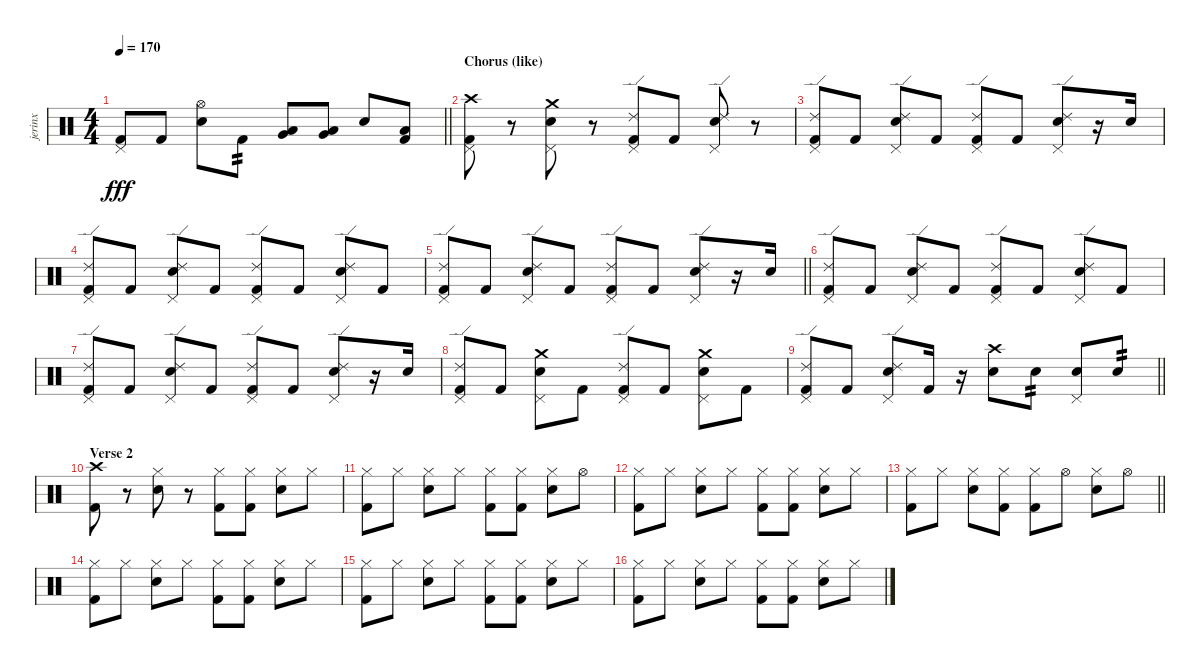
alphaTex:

\track ("jerinx" "jerinx") {instrument percussion}
\staff {score}
\articulation defaults
\ts (4 4)
\tempo 170
\clef neutral
\barLineRight lightlight
\ks c
("Pedal Hi-Hat (hit)" "Kick (hit) 2").8{dy fff} "Kick (hit) 2".8 ("Hi-Hat (open)" "Snare (hit) 2").8 "Kick (hit) 2".8{tp 2} ("Low Tom (hit)" "Very Low Tom (hit)").8 ("Low Tom (hit)" "Very Low Tom (hit)").8 "Snare (hit) 2".8 ("Kick (hit) 2" "Low Floor Tom (hit)").8 |
\section ("" "Chorus (like)")
("Pedal Hi-Hat (hit)" "Kick (hit) 2" "Crash high (hit)").8 r.8 ("Pedal Hi-Hat (hit)" "Snare (hit) 2" "Crash medium (hit)").8 r.8 ("Pedal Hi-Hat (hit)" "Kick (hit) 2" "Ride (edge) 2").8 "Kick (hit) 2".8 ("Pedal Hi-Hat (hit)" "Snare (hit) 2" "Ride (edge) 2").8 r.8 |
("Pedal Hi-Hat (hit)" "Kick (hit) 2" "Ride (edge) 2").8 "Kick (hit) 2".8 ("Pedal Hi-Hat (hit)" "Snare (hit) 2" "Ride (edge) 2").8 "Kick (hit) 2".8 ("Pedal Hi-Hat (hit)" "Kick (hit) 2" "Ride (edge) 2").8 "Kick (hit) 2".8 ("Pedal Hi-Hat (hit)" "Snare (hit) 2" "Ride (edge) 2").8 r.16 "Snare (hit) 2".16 |
("Pedal Hi-Hat (hit)" "Kick (hit) 2" "Ride (edge) 2").8 "Kick (hit) 2".8 ("Pedal Hi-Hat (hit)" "Snare (hit) 2" "Ride (edge) 2").8 "Kick (hit) 2".8 ("Pedal Hi-Hat (hit)" "Kick (hit) 2" "Ride (edge) 2").8 "Kick (hit) 2".8 ("Pedal Hi-Hat (hit)" "Snare (hit) 2" "Ride (edge) 2").8 "Kick (hit) 2".8 |
\barLineRight lightlight
("Pedal Hi-Hat (hit)" "Kick (hit) 2" "Ride (edge) 2").8 "Kick (hit) 2".8 ("Pedal Hi-Hat (hit)" "Snare (hit) 2" "Ride (edge) 2").8 "Kick (hit) 2".8 ("Pedal Hi-Hat (hit)" "Kick (hit) 2" "Ride (edge) 2").8 "Kick (hit) 2".8 ("Pedal Hi-Hat (hit)" "Snare (hit) 2" "Ride (edge) 2").8 r.16 "Snare (hit) 2".16 |
("Pedal Hi-Hat (hit)" "Kick (hit) 2" "Ride (edge) 2").8 "Kick (hit) 2".8 ("Pedal Hi-Hat (hit)" "Snare (hit) 2" "Ride (edge) 2").8 "Kick (hit) 2".8 ("Pedal Hi-Hat (hit)" "Kick (hit) 2" "Ride (edge) 2").8 "Kick (hit) 2".8 ("Pedal Hi-Hat (hit)" "Snare (hit) 2" "Ride (edge) 2").8 "Kick (hit) 2".8 |
("Pedal Hi-Hat (hit)" "Kick (hit) 2" "Ride (edge) 2").8 "Kick (hit) 2".8 ("Pedal Hi-Hat (hit)" "Snare (hit) 2" "Ride (edge) 2").8 "Kick (hit) 2".8 ("Pedal Hi-Hat (hit)" "Kick (hit) 2" "Ride (edge) 2").8 "Kick (hit) 2".8 ("Pedal Hi-Hat (hit)" "Snare (hit) 2" "Ride (edge) 2").8 r.16 "Snare (hit) 2".16 |
("Pedal Hi-Hat (hit)" "Kick (hit) 2" "Ride (edge) 2").8 "Kick (hit) 2".8 ("Pedal Hi-Hat (hit)" "Snare (hit) 2" "Crash medium (hit)").8 "Kick (hit) 2".8 ("Pedal Hi-Hat (hit)" "Kick (hit) 2" "Ride (edge) 2").8 "Kick (hit) 2".8 ("Pedal Hi-Hat (hit)" "Snare (hit) 2" "Crash medium (hit)").8 "Kick (hit) 2".8 |
\barLineRight lightlight
("Pedal Hi-Hat (hit)" "Kick (hit) 2" "Ride (edge) 2").8 "Kick (hit) 2".8 ("Pedal Hi-Hat (hit)" "Snare (hit) 2" "Ride (edge) 2").8 "Kick (hit) 2".16 r.16 ("Snare (hit) 2" "Crash high (hit)").8 "Snare (hit) 2".8{tp 2} ("Pedal Hi-Hat (hit)" "Snare (hit) 2").8 "Snare (hit) 2".8{tp 2} |
\section ("" "Verse 2")
("Kick (hit) 2" "Crash high (hit)").8 r.8 ("Hi-Hat (closed)" "Snare (hit) 2").8 r.8 ("Hi-Hat (closed)" "Kick (hit) 2").8 ("Hi-Hat (closed)" "Kick (hit) 2").8 ("Hi-Hat (closed)" "Snare (hit) 2").8 "Hi-Hat (closed)".8 |
("Hi-Hat (closed)" "Kick (hit) 2").8 "Hi-Hat (closed)".8 ("Hi-Hat (closed)" "Snare (hit) 2").8 "Hi-Hat (closed)".8 ("Hi-Hat (closed)" "Kick (hit) 2").8 ("Hi-Hat (closed)" "Kick (hit) 2").8 ("Hi-Hat (closed)" "Snare (hit) 2").8 "Hi-Hat (open)".8 |
("Hi-Hat (closed)" "Kick (hit) 2").8 "Hi-Hat (closed)".8 ("Hi-Hat (closed)" "Snare (hit) 2").8 "Hi-Hat (closed)".8 ("Hi-Hat (closed)" "Kick (hit) 2").8 ("Hi-Hat (closed)" "Kick (hit) 2").8 ("Hi-Hat (closed)" "Snare (hit) 2").8 "Hi-Hat (closed)".8 |
\barLineRight lightlight
("Hi-Hat (closed)" "Kick (hit) 2").8 "Hi-Hat (closed)".8 ("Hi-Hat (closed)" "Snare (hit) 2").8 ("Hi-Hat (closed)" "Kick (hit) 2").8 ("Hi-Hat (closed)" "Kick (hit) 2").8 "Hi-Hat (open)".8 ("Hi-Hat (closed)" "Snare (hit) 2").8 "Hi-Hat (open)".8 |
("Hi-Hat (closed)" "Kick (hit) 2").8 "Hi-Hat (closed)".8 ("Hi-Hat (closed)" "Snare (hit) 2").8 "Hi-Hat (closed)".8 ("Hi-Hat (closed)" "Kick (hit) 2").8 ("Hi-Hat (closed)" "Kick (hit) 2").8 ("Hi-Hat (closed)" "Snare (hit) 2").8 "Hi-Hat (closed)".8 |
("Hi-Hat (closed)" "Kick (hit) 2").8 "Hi-Hat (closed)".8 ("Hi-Hat (closed)" "Snare (hit) 2").8 "Hi-Hat (closed)".8 ("Hi-Hat (closed)" "Kick (hit) 2").8 ("Hi-Hat (closed)" "Kick (hit) 2").8 ("Hi-Hat (closed)" "Snare (hit) 2").8 "Hi-Hat (closed)".8 |
("Hi-Hat (closed)" "Kick (hit) 2").8 "Hi-Hat (closed)".8 ("Hi-Hat (closed)" "Snare (hit) 2").8 "Hi-Hat (closed)".8 ("Hi-Hat (closed)" "Kick (hit) 2").8 ("Hi-Hat (closed)" "Kick (hit) 2").8 ("Hi-Hat (closed)" "Snare (hit) 2").8 "Hi-Hat (closed)".8
